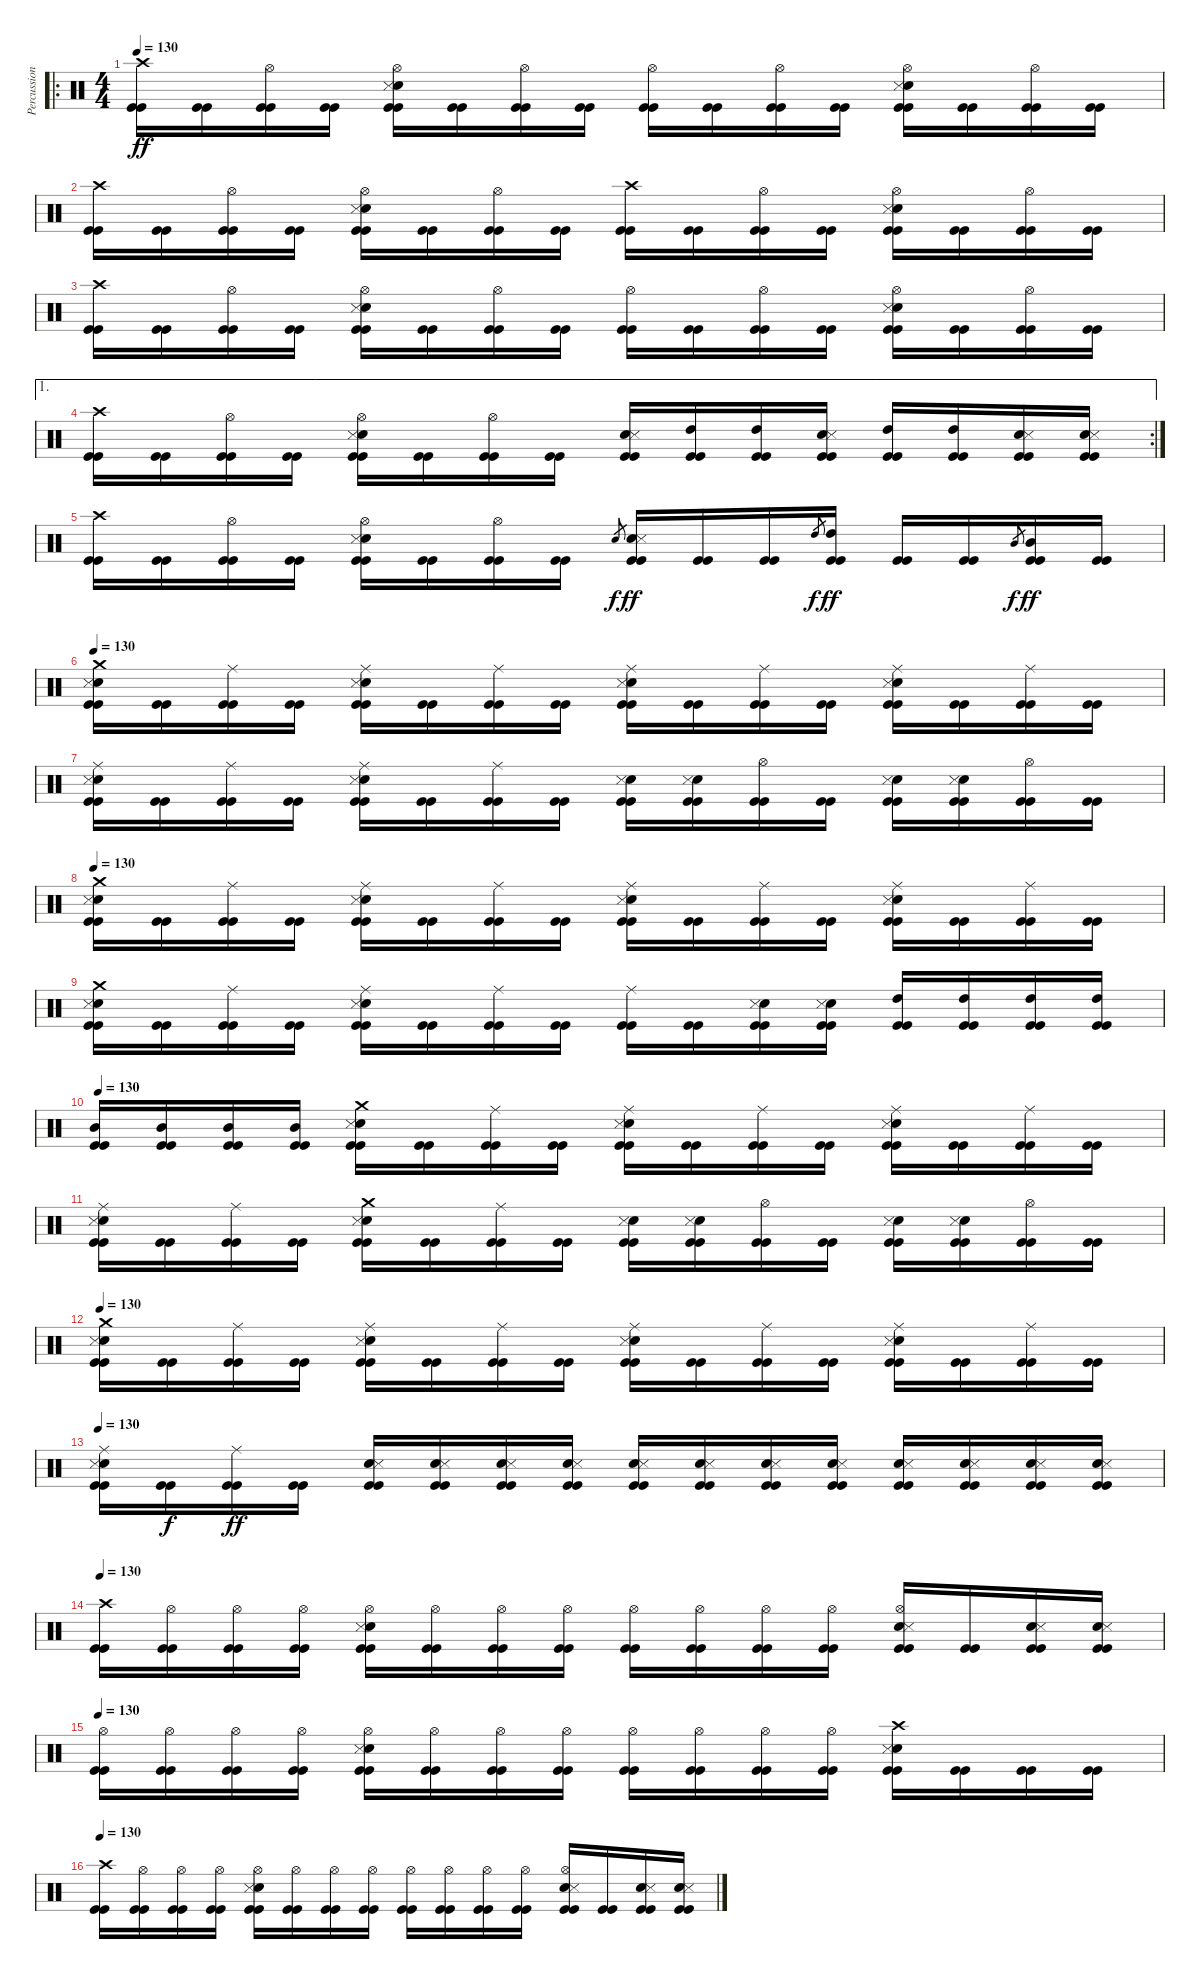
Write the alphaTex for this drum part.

\track ("Percussion" "Percussion") {instrument percussion}
\staff {score}
\articulation defaults
\ro
\ts (4 4)
\tempo 130
\clef neutral
\ks c
("Crash high (hit)" "Kick (hit)" "Kick (hit)").16{dy ff} ("Kick (hit)" "Kick (hit)").16 ("Hi-Hat (open)" "Kick (hit)" "Kick (hit)").16 ("Kick (hit)" "Kick (hit)").16 ("Electric Snare (hit)" "Snare (side stick) 3" "Hi-Hat (open)" "Kick (hit)" "Kick (hit)").16 ("Kick (hit)" "Kick (hit)").16 ("Hi-Hat (open)" "Kick (hit)" "Kick (hit)").16 ("Kick (hit)" "Kick (hit)").16 ("Hi-Hat (open)" "Kick (hit)" "Kick (hit)").16 ("Kick (hit)" "Kick (hit)").16 ("Hi-Hat (open)" "Kick (hit)" "Kick (hit)").16 ("Kick (hit)" "Kick (hit)").16 ("Electric Snare (hit)" "Snare (side stick) 3" "Hi-Hat (open)" "Kick (hit)" "Kick (hit)").16 ("Kick (hit)" "Kick (hit)").16 ("Hi-Hat (open)" "Kick (hit)" "Kick (hit)").16 ("Kick (hit)" "Kick (hit)").16 |
("Crash high (hit)" "Kick (hit)" "Kick (hit)").16 ("Kick (hit)" "Kick (hit)").16 ("Hi-Hat (open)" "Kick (hit)" "Kick (hit)").16 ("Kick (hit)" "Kick (hit)").16 ("Electric Snare (hit)" "Snare (side stick) 3" "Hi-Hat (open)" "Kick (hit)" "Kick (hit)").16 ("Kick (hit)" "Kick (hit)").16 ("Hi-Hat (open)" "Kick (hit)" "Kick (hit)").16 ("Kick (hit)" "Kick (hit)").16 ("Crash high (hit)" "Kick (hit)" "Kick (hit)").16 ("Kick (hit)" "Kick (hit)").16 ("Hi-Hat (open)" "Kick (hit)" "Kick (hit)").16 ("Kick (hit)" "Kick (hit)").16 ("Electric Snare (hit)" "Snare (side stick) 3" "Hi-Hat (open)" "Kick (hit)" "Kick (hit)").16 ("Kick (hit)" "Kick (hit)").16 ("Hi-Hat (open)" "Kick (hit)" "Kick (hit)").16 ("Kick (hit)" "Kick (hit)").16 |
("Crash high (hit)" "Kick (hit)" "Kick (hit)").16 ("Kick (hit)" "Kick (hit)").16 ("Hi-Hat (open)" "Kick (hit)" "Kick (hit)").16 ("Kick (hit)" "Kick (hit)").16 ("Electric Snare (hit)" "Snare (side stick) 3" "Hi-Hat (open)" "Kick (hit)" "Kick (hit)").16 ("Kick (hit)" "Kick (hit)").16 ("Hi-Hat (open)" "Kick (hit)" "Kick (hit)").16 ("Kick (hit)" "Kick (hit)").16 ("Hi-Hat (open)" "Kick (hit)" "Kick (hit)").16 ("Kick (hit)" "Kick (hit)").16 ("Hi-Hat (open)" "Kick (hit)" "Kick (hit)").16 ("Kick (hit)" "Kick (hit)").16 ("Electric Snare (hit)" "Snare (side stick) 3" "Hi-Hat (open)" "Kick (hit)" "Kick (hit)").16 ("Kick (hit)" "Kick (hit)").16 ("Hi-Hat (open)" "Kick (hit)" "Kick (hit)").16 ("Kick (hit)" "Kick (hit)").16 |
\ae 1
\rc 2
("Crash high (hit)" "Kick (hit)" "Kick (hit)").16 ("Kick (hit)" "Kick (hit)").16 ("Hi-Hat (open)" "Kick (hit)" "Kick (hit)").16 ("Kick (hit)" "Kick (hit)").16 ("Electric Snare (hit)" "Snare (side stick) 3" "Hi-Hat (open)" "Kick (hit)" "Kick (hit)").16 ("Kick (hit)" "Kick (hit)").16 ("Hi-Hat (open)" "Kick (hit)" "Kick (hit)").16 ("Kick (hit)" "Kick (hit)").16 ("Electric Snare (hit)" "Snare (side stick) 3" "Kick (hit)" "Kick (hit)").16 ("High Tom (hit)" "Kick (hit)" "Kick (hit)").16 ("High Tom (hit)" "Kick (hit)" "Kick (hit)").16 ("Electric Snare (hit)" "Snare (side stick) 3" "Kick (hit)" "Kick (hit)").16 ("High Tom (hit)" "Kick (hit)" "Kick (hit)").16 ("High Tom (hit)" "Kick (hit)" "Kick (hit)").16 ("Electric Snare (hit)" "Snare (side stick) 3" "Kick (hit)" "Kick (hit)").16 ("Electric Snare (hit)" "Snare (side stick) 3" "Kick (hit)" "Kick (hit)").16 |
("Crash high (hit)" "Kick (hit)" "Kick (hit)").16 ("Kick (hit)" "Kick (hit)").16 ("Hi-Hat (open)" "Kick (hit)" "Kick (hit)").16 ("Kick (hit)" "Kick (hit)").16 ("Electric Snare (hit)" "Snare (side stick) 3" "Hi-Hat (open)" "Kick (hit)" "Kick (hit)").16 ("Kick (hit)" "Kick (hit)").16 ("Hi-Hat (open)" "Kick (hit)" "Kick (hit)").16 ("Kick (hit)" "Kick (hit)").16 "Electric Snare (hit)".8{gr dy f} ("Electric Snare (hit)" "Snare (side stick) 3" "Kick (hit)" "Kick (hit)").16{dy ff} ("Kick (hit)" "Kick (hit)").16 ("Kick (hit)" "Kick (hit)").16 "High Tom (hit)".8{gr dy f} ("High Tom (hit)" "Kick (hit)" "Kick (hit)").16{dy ff} ("Kick (hit)" "Kick (hit)").16 ("Kick (hit)" "Kick (hit)").16 "Mid Tom (hit)".8{gr dy f} ("Mid Tom (hit)" "Kick (hit)" "Kick (hit)").16{dy ff} ("Kick (hit)" "Kick (hit)").16 |
\tempo 130
("Electric Snare (hit)" "Snare (side stick) 3" "Crash medium (hit)" "Kick (hit)" "Kick (hit)").16 ("Kick (hit)" "Kick (hit)").16 ("Ride (middle)" "Kick (hit)" "Kick (hit)").16 ("Kick (hit)" "Kick (hit)").16 ("Electric Snare (hit)" "Snare (side stick) 3" "Ride (middle)" "Kick (hit)" "Kick (hit)").16 ("Kick (hit)" "Kick (hit)").16 ("Ride (middle)" "Kick (hit)" "Kick (hit)").16 ("Kick (hit)" "Kick (hit)").16 ("Electric Snare (hit)" "Snare (side stick) 3" "Ride (middle)" "Kick (hit)" "Kick (hit)").16 ("Kick (hit)" "Kick (hit)").16 ("Ride (middle)" "Kick (hit)" "Kick (hit)").16 ("Kick (hit)" "Kick (hit)").16 ("Electric Snare (hit)" "Snare (side stick) 3" "Ride (middle)" "Kick (hit)" "Kick (hit)").16 ("Kick (hit)" "Kick (hit)").16 ("Ride (middle)" "Kick (hit)" "Kick (hit)").16 ("Kick (hit)" "Kick (hit)").16 |
("Electric Snare (hit)" "Snare (side stick) 3" "Ride (middle)" "Kick (hit)" "Kick (hit)").16 ("Kick (hit)" "Kick (hit)").16 ("Ride (middle)" "Kick (hit)" "Kick (hit)").16 ("Kick (hit)" "Kick (hit)").16 ("Electric Snare (hit)" "Snare (side stick) 3" "Ride (middle)" "Kick (hit)" "Kick (hit)").16 ("Kick (hit)" "Kick (hit)").16 ("Ride (middle)" "Kick (hit)" "Kick (hit)").16 ("Kick (hit)" "Kick (hit)").16 ("Electric Snare (hit)" "Snare (side stick) 3" "Kick (hit)" "Kick (hit)").16 ("Electric Snare (hit)" "Snare (side stick) 3" "Kick (hit)" "Kick (hit)").16 ("Hi-Hat (open)" "Kick (hit)" "Kick (hit)").16 ("Kick (hit)" "Kick (hit)").16 ("Electric Snare (hit)" "Snare (side stick) 3" "Kick (hit)" "Kick (hit)").16 ("Electric Snare (hit)" "Snare (side stick) 3" "Kick (hit)" "Kick (hit)").16 ("Hi-Hat (open)" "Kick (hit)" "Kick (hit)").16 ("Kick (hit)" "Kick (hit)").16 |
\tempo 130
("Electric Snare (hit)" "Snare (side stick) 3" "Crash medium (hit)" "Kick (hit)" "Kick (hit)").16 ("Kick (hit)" "Kick (hit)").16 ("Ride (middle)" "Kick (hit)" "Kick (hit)").16 ("Kick (hit)" "Kick (hit)").16 ("Electric Snare (hit)" "Snare (side stick) 3" "Ride (middle)" "Kick (hit)" "Kick (hit)").16 ("Kick (hit)" "Kick (hit)").16 ("Ride (middle)" "Kick (hit)" "Kick (hit)").16 ("Kick (hit)" "Kick (hit)").16 ("Electric Snare (hit)" "Snare (side stick) 3" "Ride (middle)" "Kick (hit)" "Kick (hit)").16 ("Kick (hit)" "Kick (hit)").16 ("Ride (middle)" "Kick (hit)" "Kick (hit)").16 ("Kick (hit)" "Kick (hit)").16 ("Electric Snare (hit)" "Snare (side stick) 3" "Ride (middle)" "Kick (hit)" "Kick (hit)").16 ("Kick (hit)" "Kick (hit)").16 ("Ride (middle)" "Kick (hit)" "Kick (hit)").16 ("Kick (hit)" "Kick (hit)").16 |
("Kick (hit)" "Crash medium (hit)" "Electric Snare (hit)" "Snare (side stick) 3" "Kick (hit)").16 ("Kick (hit)" "Kick (hit)").16 ("Ride (middle)" "Kick (hit)" "Kick (hit)").16 ("Kick (hit)" "Kick (hit)").16 ("Kick (hit)" "Ride (middle)" "Electric Snare (hit)" "Snare (side stick) 3" "Kick (hit)").16 ("Kick (hit)" "Kick (hit)").16 ("Ride (middle)" "Kick (hit)" "Kick (hit)").16 ("Kick (hit)" "Kick (hit)").16 ("Ride (middle)" "Kick (hit)" "Kick (hit)").16 ("Kick (hit)" "Kick (hit)").16 ("Electric Snare (hit)" "Snare (side stick) 3" "Kick (hit)" "Kick (hit)").16 ("Electric Snare (hit)" "Snare (side stick) 3" "Kick (hit)" "Kick (hit)").16 ("High Tom (hit)" "Kick (hit)" "Kick (hit)").16 ("High Tom (hit)" "Kick (hit)" "Kick (hit)").16 ("High Tom (hit)" "Kick (hit)" "Kick (hit)").16 ("High Tom (hit)" "Kick (hit)" "Kick (hit)").16 |
\tempo 130
("Mid Tom (hit)" "Kick (hit)" "Kick (hit)").16 ("Mid Tom (hit)" "Kick (hit)" "Kick (hit)").16 ("Mid Tom (hit)" "Kick (hit)" "Kick (hit)").16 ("Mid Tom (hit)" "Kick (hit)" "Kick (hit)").16 ("Electric Snare (hit)" "Snare (side stick) 3" "Crash medium (hit)" "Kick (hit)" "Kick (hit)").16 ("Kick (hit)" "Kick (hit)").16 ("Ride (middle)" "Kick (hit)" "Kick (hit)").16 ("Kick (hit)" "Kick (hit)").16 ("Electric Snare (hit)" "Snare (side stick) 3" "Ride (middle)" "Kick (hit)" "Kick (hit)").16 ("Kick (hit)" "Kick (hit)").16 ("Ride (middle)" "Kick (hit)" "Kick (hit)").16 ("Kick (hit)" "Kick (hit)").16 ("Electric Snare (hit)" "Snare (side stick) 3" "Ride (middle)" "Kick (hit)" "Kick (hit)").16 ("Kick (hit)" "Kick (hit)").16 ("Ride (middle)" "Kick (hit)" "Kick (hit)").16 ("Kick (hit)" "Kick (hit)").16 |
("Electric Snare (hit)" "Snare (side stick) 3" "Ride (middle)" "Kick (hit)" "Kick (hit)").16 ("Kick (hit)" "Kick (hit)").16 ("Ride (middle)" "Kick (hit)" "Kick (hit)").16 ("Kick (hit)" "Kick (hit)").16 ("Electric Snare (hit)" "Snare (side stick) 3" "Crash medium (hit)" "Kick (hit)" "Kick (hit)").16 ("Kick (hit)" "Kick (hit)").16 ("Ride (middle)" "Kick (hit)" "Kick (hit)").16 ("Kick (hit)" "Kick (hit)").16 ("Electric Snare (hit)" "Snare (side stick) 3" "Kick (hit)" "Kick (hit)").16 ("Electric Snare (hit)" "Snare (side stick) 3" "Kick (hit)" "Kick (hit)").16 ("Hi-Hat (open)" "Kick (hit)" "Kick (hit)").16 ("Kick (hit)" "Kick (hit)").16 ("Electric Snare (hit)" "Snare (side stick) 3" "Kick (hit)" "Kick (hit)").16 ("Electric Snare (hit)" "Snare (side stick) 3" "Kick (hit)" "Kick (hit)").16 ("Hi-Hat (open)" "Kick (hit)" "Kick (hit)").16 ("Kick (hit)" "Kick (hit)").16 |
\tempo 130
("Electric Snare (hit)" "Snare (side stick) 3" "Crash medium (hit)" "Kick (hit)" "Kick (hit)").16 ("Kick (hit)" "Kick (hit)").16 ("Ride (middle)" "Kick (hit)" "Kick (hit)").16 ("Kick (hit)" "Kick (hit)").16 ("Electric Snare (hit)" "Snare (side stick) 3" "Ride (middle)" "Kick (hit)" "Kick (hit)").16 ("Kick (hit)" "Kick (hit)").16 ("Ride (middle)" "Kick (hit)" "Kick (hit)").16 ("Kick (hit)" "Kick (hit)").16 ("Electric Snare (hit)" "Snare (side stick) 3" "Ride (middle)" "Kick (hit)" "Kick (hit)").16 ("Kick (hit)" "Kick (hit)").16 ("Ride (middle)" "Kick (hit)" "Kick (hit)").16 ("Kick (hit)" "Kick (hit)").16 ("Electric Snare (hit)" "Snare (side stick) 3" "Ride (middle)" "Kick (hit)" "Kick (hit)").16 ("Kick (hit)" "Kick (hit)").16 ("Ride (middle)" "Kick (hit)" "Kick (hit)").16 ("Kick (hit)" "Kick (hit)").16 |
\tempo 130
("Electric Snare (hit)" "Snare (side stick) 3" "Ride (middle)" "Kick (hit)" "Kick (hit)").16 ("Kick (hit)" "Kick (hit)").16{dy f} ("Ride (middle)" "Kick (hit)" "Kick (hit)").16{dy ff} ("Kick (hit)" "Kick (hit)").16 ("Electric Snare (hit)" "Snare (side stick) 3" "Kick (hit)" "Kick (hit)").16 ("Electric Snare (hit)" "Snare (side stick) 3" "Kick (hit)" "Kick (hit)").16 ("Electric Snare (hit)" "Snare (side stick) 3" "Kick (hit)" "Kick (hit)").16 ("Electric Snare (hit)" "Snare (side stick) 3" "Kick (hit)" "Kick (hit)").16 ("Electric Snare (hit)" "Snare (side stick) 3" "Kick (hit)" "Kick (hit)").16 ("Electric Snare (hit)" "Snare (side stick) 3" "Kick (hit)" "Kick (hit)").16 ("Electric Snare (hit)" "Snare (side stick) 3" "Kick (hit)" "Kick (hit)").16 ("Electric Snare (hit)" "Snare (side stick) 3" "Kick (hit)" "Kick (hit)").16 ("Electric Snare (hit)" "Snare (side stick) 3" "Kick (hit)" "Kick (hit)").16 ("Electric Snare (hit)" "Snare (side stick) 3" "Kick (hit)" "Kick (hit)").16 ("Electric Snare (hit)" "Snare (side stick) 3" "Kick (hit)" "Kick (hit)").16 ("Electric Snare (hit)" "Snare (side stick) 3" "Kick (hit)" "Kick (hit)").16 |
\tempo 130
("Crash high (hit)" "Kick (hit)" "Kick (hit)").16 ("Hi-Hat (open)" "Kick (hit)" "Kick (hit)").16 ("Hi-Hat (open)" "Kick (hit)" "Kick (hit)").16 ("Hi-Hat (open)" "Kick (hit)" "Kick (hit)").16 ("Electric Snare (hit)" "Snare (side stick) 3" "Hi-Hat (open)" "Kick (hit)" "Kick (hit)").16 ("Hi-Hat (open)" "Kick (hit)" "Kick (hit)").16 ("Hi-Hat (open)" "Kick (hit)" "Kick (hit)").16 ("Hi-Hat (open)" "Kick (hit)" "Kick (hit)").16 ("Hi-Hat (open)" "Kick (hit)" "Kick (hit)").16 ("Hi-Hat (open)" "Kick (hit)" "Kick (hit)").16 ("Hi-Hat (open)" "Kick (hit)" "Kick (hit)").16 ("Hi-Hat (open)" "Kick (hit)" "Kick (hit)").16 ("Electric Snare (hit)" "Snare (side stick) 3" "Hi-Hat (open)" "Kick (hit)" "Kick (hit)").16 ("Kick (hit)" "Kick (hit)").16 ("Electric Snare (hit)" "Snare (side stick) 3" "Kick (hit)" "Kick (hit)").16 ("Electric Snare (hit)" "Snare (side stick) 3" "Kick (hit)" "Kick (hit)").16 |
\tempo 130
("Hi-Hat (open)" "Kick (hit)" "Kick (hit)").16 ("Hi-Hat (open)" "Kick (hit)" "Kick (hit)").16 ("Hi-Hat (open)" "Kick (hit)" "Kick (hit)").16 ("Hi-Hat (open)" "Kick (hit)" "Kick (hit)").16 ("Electric Snare (hit)" "Snare (side stick) 3" "Hi-Hat (open)" "Kick (hit)" "Kick (hit)").16 ("Hi-Hat (open)" "Kick (hit)" "Kick (hit)").16 ("Hi-Hat (open)" "Kick (hit)" "Kick (hit)").16 ("Hi-Hat (open)" "Kick (hit)" "Kick (hit)").16 ("Hi-Hat (open)" "Kick (hit)" "Kick (hit)").16 ("Hi-Hat (open)" "Kick (hit)" "Kick (hit)").16 ("Hi-Hat (open)" "Kick (hit)" "Kick (hit)").16 ("Hi-Hat (open)" "Kick (hit)" "Kick (hit)").16 ("Electric Snare (hit)" "Snare (side stick) 3" "Crash high (hit)" "Kick (hit)" "Kick (hit)").16 ("Kick (hit)" "Kick (hit)").16 ("Kick (hit)" "Kick (hit)").16 ("Kick (hit)" "Kick (hit)").16 |
\tempo 130
("Crash high (hit)" "Kick (hit)" "Kick (hit)").16 ("Hi-Hat (open)" "Kick (hit)" "Kick (hit)").16 ("Hi-Hat (open)" "Kick (hit)" "Kick (hit)").16 ("Hi-Hat (open)" "Kick (hit)" "Kick (hit)").16 ("Electric Snare (hit)" "Snare (side stick) 3" "Hi-Hat (open)" "Kick (hit)" "Kick (hit)").16 ("Hi-Hat (open)" "Kick (hit)" "Kick (hit)").16 ("Hi-Hat (open)" "Kick (hit)" "Kick (hit)").16 ("Hi-Hat (open)" "Kick (hit)" "Kick (hit)").16 ("Hi-Hat (open)" "Kick (hit)" "Kick (hit)").16 ("Hi-Hat (open)" "Kick (hit)" "Kick (hit)").16 ("Hi-Hat (open)" "Kick (hit)" "Kick (hit)").16 ("Hi-Hat (open)" "Kick (hit)" "Kick (hit)").16 ("Electric Snare (hit)" "Snare (side stick) 3" "Hi-Hat (open)" "Kick (hit)" "Kick (hit)").16 ("Kick (hit)" "Kick (hit)").16 ("Electric Snare (hit)" "Snare (side stick) 3" "Kick (hit)" "Kick (hit)").16 ("Electric Snare (hit)" "Snare (side stick) 3" "Kick (hit)" "Kick (hit)").16
